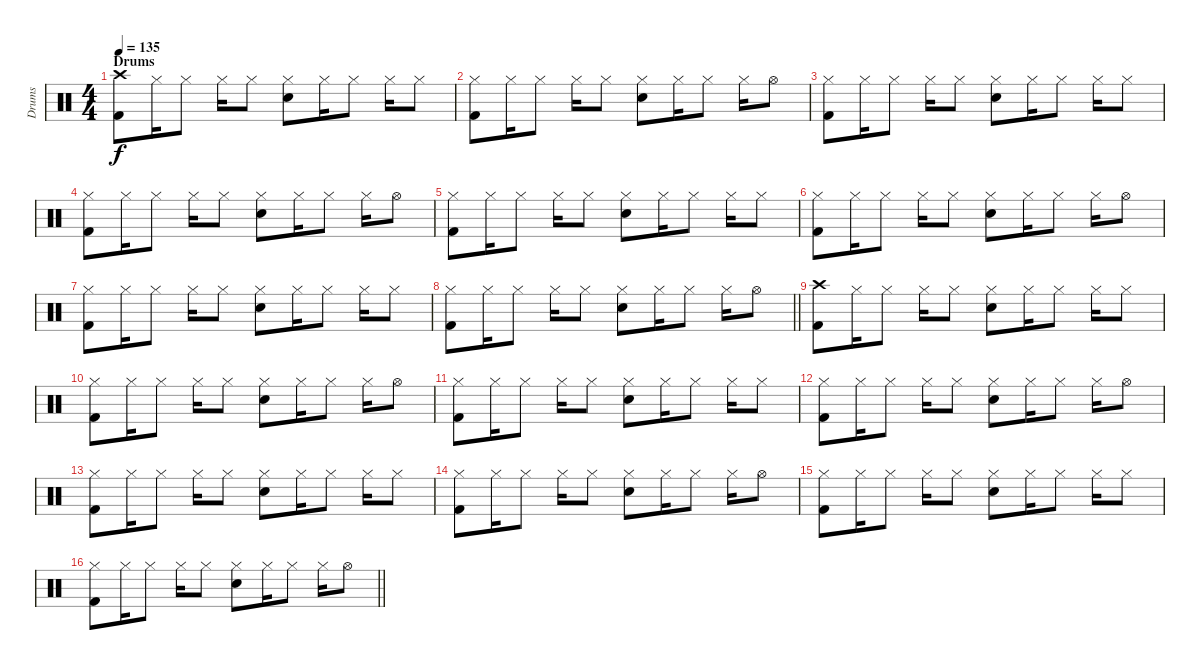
\track ("Drums" "Drums") {instrument percussion}
\staff {score}
\articulation defaults
\ts (4 4)
\section ("" "Drums")
\tempo 135
\clef neutral
\ks c
("Crash high (hit)" "Kick (hit) 2").8{dy f} "Hi-Hat (closed)".16 "Hi-Hat (closed)".8 "Hi-Hat (closed)".16 "Hi-Hat (closed)".8 ("Hi-Hat (closed)" "Electric Snare (hit)").8 "Hi-Hat (closed)".16 "Hi-Hat (closed)".8 "Hi-Hat (closed)".16 "Hi-Hat (closed)".8 |
("Hi-Hat (closed)" "Kick (hit) 2").8 "Hi-Hat (closed)".16 "Hi-Hat (closed)".8 "Hi-Hat (closed)".16 "Hi-Hat (closed)".8 ("Hi-Hat (closed)" "Electric Snare (hit)").8 "Hi-Hat (closed)".16 "Hi-Hat (closed)".8 "Hi-Hat (closed)".16 "Hi-Hat (open)".8 |
("Hi-Hat (closed)" "Kick (hit) 2").8 "Hi-Hat (closed)".16 "Hi-Hat (closed)".8 "Hi-Hat (closed)".16 "Hi-Hat (closed)".8 ("Hi-Hat (closed)" "Electric Snare (hit)").8 "Hi-Hat (closed)".16 "Hi-Hat (closed)".8 "Hi-Hat (closed)".16 "Hi-Hat (closed)".8 |
("Hi-Hat (closed)" "Kick (hit) 2").8 "Hi-Hat (closed)".16 "Hi-Hat (closed)".8 "Hi-Hat (closed)".16 "Hi-Hat (closed)".8 ("Hi-Hat (closed)" "Electric Snare (hit)").8 "Hi-Hat (closed)".16 "Hi-Hat (closed)".8 "Hi-Hat (closed)".16 "Hi-Hat (open)".8 |
("Hi-Hat (closed)" "Kick (hit) 2").8 "Hi-Hat (closed)".16 "Hi-Hat (closed)".8 "Hi-Hat (closed)".16 "Hi-Hat (closed)".8 ("Hi-Hat (closed)" "Electric Snare (hit)").8 "Hi-Hat (closed)".16 "Hi-Hat (closed)".8 "Hi-Hat (closed)".16 "Hi-Hat (closed)".8 |
("Hi-Hat (closed)" "Kick (hit) 2").8 "Hi-Hat (closed)".16 "Hi-Hat (closed)".8 "Hi-Hat (closed)".16 "Hi-Hat (closed)".8 ("Hi-Hat (closed)" "Electric Snare (hit)").8 "Hi-Hat (closed)".16 "Hi-Hat (closed)".8 "Hi-Hat (closed)".16 "Hi-Hat (open)".8 |
("Hi-Hat (closed)" "Kick (hit) 2").8 "Hi-Hat (closed)".16 "Hi-Hat (closed)".8 "Hi-Hat (closed)".16 "Hi-Hat (closed)".8 ("Hi-Hat (closed)" "Electric Snare (hit)").8 "Hi-Hat (closed)".16 "Hi-Hat (closed)".8 "Hi-Hat (closed)".16 "Hi-Hat (closed)".8 |
\barLineRight lightlight
("Hi-Hat (closed)" "Kick (hit) 2").8 "Hi-Hat (closed)".16 "Hi-Hat (closed)".8 "Hi-Hat (closed)".16 "Hi-Hat (closed)".8 ("Hi-Hat (closed)" "Electric Snare (hit)").8 "Hi-Hat (closed)".16 "Hi-Hat (closed)".8 "Hi-Hat (closed)".16 "Hi-Hat (open)".8 |
("Crash high (hit)" "Kick (hit) 2").8 "Hi-Hat (closed)".16 "Hi-Hat (closed)".8 "Hi-Hat (closed)".16 "Hi-Hat (closed)".8 ("Hi-Hat (closed)" "Electric Snare (hit)").8 "Hi-Hat (closed)".16 "Hi-Hat (closed)".8 "Hi-Hat (closed)".16 "Hi-Hat (closed)".8 |
("Hi-Hat (closed)" "Kick (hit) 2").8 "Hi-Hat (closed)".16 "Hi-Hat (closed)".8 "Hi-Hat (closed)".16 "Hi-Hat (closed)".8 ("Hi-Hat (closed)" "Electric Snare (hit)").8 "Hi-Hat (closed)".16 "Hi-Hat (closed)".8 "Hi-Hat (closed)".16 "Hi-Hat (open)".8 |
("Hi-Hat (closed)" "Kick (hit) 2").8 "Hi-Hat (closed)".16 "Hi-Hat (closed)".8 "Hi-Hat (closed)".16 "Hi-Hat (closed)".8 ("Hi-Hat (closed)" "Electric Snare (hit)").8 "Hi-Hat (closed)".16 "Hi-Hat (closed)".8 "Hi-Hat (closed)".16 "Hi-Hat (closed)".8 |
("Hi-Hat (closed)" "Kick (hit) 2").8 "Hi-Hat (closed)".16 "Hi-Hat (closed)".8 "Hi-Hat (closed)".16 "Hi-Hat (closed)".8 ("Hi-Hat (closed)" "Electric Snare (hit)").8 "Hi-Hat (closed)".16 "Hi-Hat (closed)".8 "Hi-Hat (closed)".16 "Hi-Hat (open)".8 |
("Hi-Hat (closed)" "Kick (hit) 2").8 "Hi-Hat (closed)".16 "Hi-Hat (closed)".8 "Hi-Hat (closed)".16 "Hi-Hat (closed)".8 ("Hi-Hat (closed)" "Electric Snare (hit)").8 "Hi-Hat (closed)".16 "Hi-Hat (closed)".8 "Hi-Hat (closed)".16 "Hi-Hat (closed)".8 |
("Hi-Hat (closed)" "Kick (hit) 2").8 "Hi-Hat (closed)".16 "Hi-Hat (closed)".8 "Hi-Hat (closed)".16 "Hi-Hat (closed)".8 ("Hi-Hat (closed)" "Electric Snare (hit)").8 "Hi-Hat (closed)".16 "Hi-Hat (closed)".8 "Hi-Hat (closed)".16 "Hi-Hat (open)".8 |
("Hi-Hat (closed)" "Kick (hit) 2").8 "Hi-Hat (closed)".16 "Hi-Hat (closed)".8 "Hi-Hat (closed)".16 "Hi-Hat (closed)".8 ("Hi-Hat (closed)" "Electric Snare (hit)").8 "Hi-Hat (closed)".16 "Hi-Hat (closed)".8 "Hi-Hat (closed)".16 "Hi-Hat (closed)".8 |
\barLineRight lightlight
("Hi-Hat (closed)" "Kick (hit) 2").8 "Hi-Hat (closed)".16 "Hi-Hat (closed)".8 "Hi-Hat (closed)".16 "Hi-Hat (closed)".8 ("Hi-Hat (closed)" "Electric Snare (hit)").8 "Hi-Hat (closed)".16 "Hi-Hat (closed)".8 "Hi-Hat (closed)".16 "Hi-Hat (open)".8
